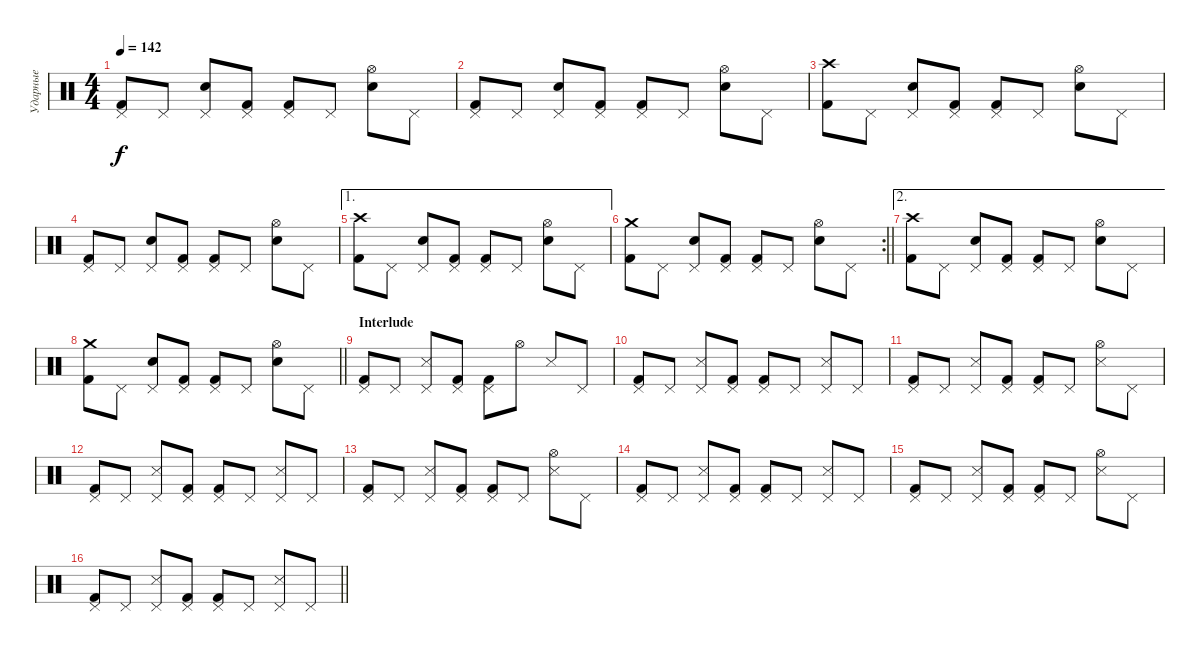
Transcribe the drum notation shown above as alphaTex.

\track ("Ударные" "Ударные") {instrument percussion}
\staff {score}
\articulation defaults
\ts (4 4)
\tempo 142
\clef neutral
\ks c
("Pedal Hi-Hat (hit)" "Kick (hit) 2").8{dy f} "Pedal Hi-Hat (hit)".8 ("Pedal Hi-Hat (hit)" "Snare (hit) 2").8 ("Pedal Hi-Hat (hit)" "Kick (hit) 2").8 ("Pedal Hi-Hat (hit)" "Kick (hit) 2").8 "Pedal Hi-Hat (hit)".8 ("Hi-Hat (open)" "Snare (hit) 2").8 "Pedal Hi-Hat (hit)".8 |
("Pedal Hi-Hat (hit)" "Kick (hit) 2").8 "Pedal Hi-Hat (hit)".8 ("Pedal Hi-Hat (hit)" "Snare (hit) 2").8 ("Pedal Hi-Hat (hit)" "Kick (hit) 2").8 ("Pedal Hi-Hat (hit)" "Kick (hit) 2").8 "Pedal Hi-Hat (hit)".8 ("Hi-Hat (open)" "Snare (hit) 2").8 "Pedal Hi-Hat (hit)".8 |
("Crash high (hit)" "Kick (hit) 2").8 "Pedal Hi-Hat (hit)".8 ("Pedal Hi-Hat (hit)" "Snare (hit) 2").8 ("Pedal Hi-Hat (hit)" "Kick (hit) 2").8 ("Pedal Hi-Hat (hit)" "Kick (hit) 2").8 "Pedal Hi-Hat (hit)".8 ("Hi-Hat (open)" "Snare (hit) 2").8 "Pedal Hi-Hat (hit)".8 |
("Pedal Hi-Hat (hit)" "Kick (hit) 2").8 "Pedal Hi-Hat (hit)".8 ("Pedal Hi-Hat (hit)" "Snare (hit) 2").8 ("Pedal Hi-Hat (hit)" "Kick (hit) 2").8 ("Pedal Hi-Hat (hit)" "Kick (hit) 2").8 "Pedal Hi-Hat (hit)".8 ("Hi-Hat (open)" "Snare (hit) 2").8 "Pedal Hi-Hat (hit)".8 |
\ae 1
("Crash high (hit)" "Kick (hit) 2").8 "Pedal Hi-Hat (hit)".8 ("Pedal Hi-Hat (hit)" "Snare (hit) 2").8 ("Pedal Hi-Hat (hit)" "Kick (hit) 2").8 ("Pedal Hi-Hat (hit)" "Kick (hit) 2").8 "Pedal Hi-Hat (hit)".8 ("Hi-Hat (open)" "Snare (hit) 2").8 "Pedal Hi-Hat (hit)".8 |
\rc 2
\barLineRight lightlight
("Crash medium (hit)" "Kick (hit) 2").8 "Pedal Hi-Hat (hit)".8 ("Pedal Hi-Hat (hit)" "Snare (hit) 2").8 ("Pedal Hi-Hat (hit)" "Kick (hit) 2").8 ("Pedal Hi-Hat (hit)" "Kick (hit) 2").8 "Pedal Hi-Hat (hit)".8 ("Hi-Hat (open)" "Snare (hit) 2").8 "Pedal Hi-Hat (hit)".8 |
\ae 2
("Crash high (hit)" "Kick (hit) 2").8 "Pedal Hi-Hat (hit)".8 ("Pedal Hi-Hat (hit)" "Snare (hit) 2").8 ("Pedal Hi-Hat (hit)" "Kick (hit) 2").8 ("Pedal Hi-Hat (hit)" "Kick (hit) 2").8 "Pedal Hi-Hat (hit)".8 ("Hi-Hat (open)" "Snare (hit) 2").8 "Pedal Hi-Hat (hit)".8 |
\barLineRight lightlight
("Crash medium (hit)" "Kick (hit) 2").8 "Pedal Hi-Hat (hit)".8 ("Pedal Hi-Hat (hit)" "Snare (hit) 2").8 ("Pedal Hi-Hat (hit)" "Kick (hit) 2").8 ("Pedal Hi-Hat (hit)" "Kick (hit) 2").8 "Pedal Hi-Hat (hit)".8 ("Hi-Hat (open)" "Snare (hit) 2").8 "Pedal Hi-Hat (hit)".8 |
\section ("" "Interlude")
("Pedal Hi-Hat (hit)" "Kick (hit) 2").8 "Pedal Hi-Hat (hit)".8 ("Pedal Hi-Hat (hit)" "Snare (side stick) 3").8 ("Pedal Hi-Hat (hit)" "Kick (hit) 2").8 ("Pedal Hi-Hat (hit)" "Kick (hit) 2").8 "Hi-Hat (open)".8 "Snare (side stick) 3".8 "Pedal Hi-Hat (hit)".8 |
("Pedal Hi-Hat (hit)" "Kick (hit) 2").8 "Pedal Hi-Hat (hit)".8 ("Pedal Hi-Hat (hit)" "Snare (side stick) 3").8 ("Pedal Hi-Hat (hit)" "Kick (hit) 2").8 ("Pedal Hi-Hat (hit)" "Kick (hit) 2").8 "Pedal Hi-Hat (hit)".8 ("Pedal Hi-Hat (hit)" "Snare (side stick) 3").8 "Pedal Hi-Hat (hit)".8 |
("Pedal Hi-Hat (hit)" "Kick (hit) 2").8 "Pedal Hi-Hat (hit)".8 ("Pedal Hi-Hat (hit)" "Snare (side stick) 3").8 ("Pedal Hi-Hat (hit)" "Kick (hit) 2").8 ("Pedal Hi-Hat (hit)" "Kick (hit) 2").8 "Pedal Hi-Hat (hit)".8 ("Hi-Hat (open)" "Snare (side stick) 3").8 "Pedal Hi-Hat (hit)".8 |
("Pedal Hi-Hat (hit)" "Kick (hit) 2").8 "Pedal Hi-Hat (hit)".8 ("Pedal Hi-Hat (hit)" "Snare (side stick) 3").8 ("Pedal Hi-Hat (hit)" "Kick (hit) 2").8 ("Pedal Hi-Hat (hit)" "Kick (hit) 2").8 "Pedal Hi-Hat (hit)".8 ("Pedal Hi-Hat (hit)" "Snare (side stick) 3").8 "Pedal Hi-Hat (hit)".8 |
("Pedal Hi-Hat (hit)" "Kick (hit) 2").8 "Pedal Hi-Hat (hit)".8 ("Pedal Hi-Hat (hit)" "Snare (side stick) 3").8 ("Pedal Hi-Hat (hit)" "Kick (hit) 2").8 ("Pedal Hi-Hat (hit)" "Kick (hit) 2").8 "Pedal Hi-Hat (hit)".8 ("Hi-Hat (open)" "Snare (side stick) 3").8 "Pedal Hi-Hat (hit)".8 |
("Pedal Hi-Hat (hit)" "Kick (hit) 2").8 "Pedal Hi-Hat (hit)".8 ("Pedal Hi-Hat (hit)" "Snare (side stick) 3").8 ("Pedal Hi-Hat (hit)" "Kick (hit) 2").8 ("Pedal Hi-Hat (hit)" "Kick (hit) 2").8 "Pedal Hi-Hat (hit)".8 ("Pedal Hi-Hat (hit)" "Snare (side stick) 3").8 "Pedal Hi-Hat (hit)".8 |
("Pedal Hi-Hat (hit)" "Kick (hit) 2").8 "Pedal Hi-Hat (hit)".8 ("Pedal Hi-Hat (hit)" "Snare (side stick) 3").8 ("Pedal Hi-Hat (hit)" "Kick (hit) 2").8 ("Pedal Hi-Hat (hit)" "Kick (hit) 2").8 "Pedal Hi-Hat (hit)".8 ("Hi-Hat (open)" "Snare (side stick) 3").8 "Pedal Hi-Hat (hit)".8 |
\barLineRight lightlight
("Pedal Hi-Hat (hit)" "Kick (hit) 2").8 "Pedal Hi-Hat (hit)".8 ("Pedal Hi-Hat (hit)" "Snare (side stick) 3").8 ("Pedal Hi-Hat (hit)" "Kick (hit) 2").8 ("Pedal Hi-Hat (hit)" "Kick (hit) 2").8 "Pedal Hi-Hat (hit)".8 ("Pedal Hi-Hat (hit)" "Snare (side stick) 3").8 "Pedal Hi-Hat (hit)".8
